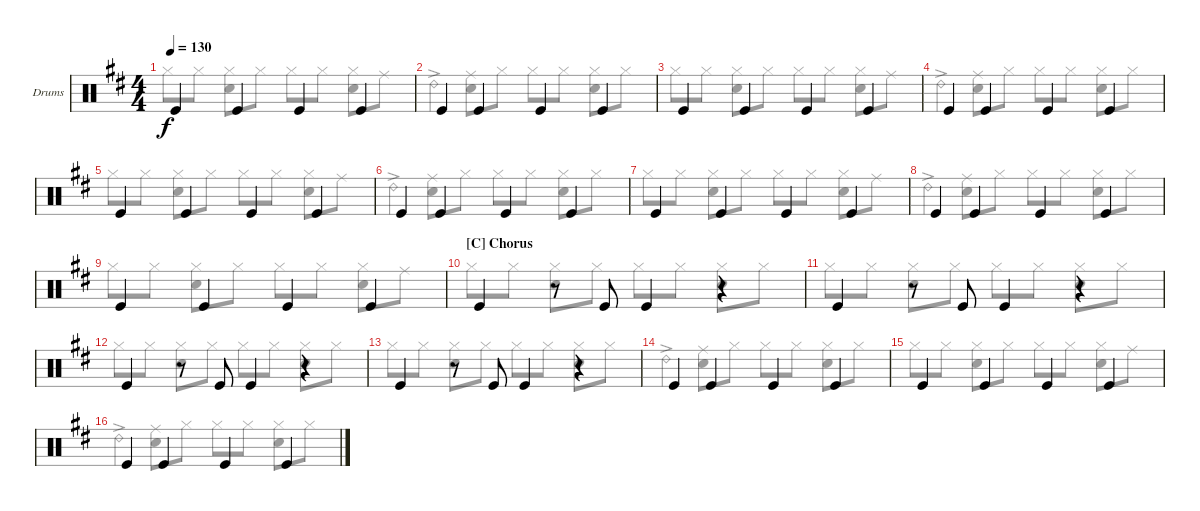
\bracketExtendMode groupsimilarinstruments
\firstSystemTrackNameOrientation horizontal
\otherSystemsTrackNameOrientation horizontal
\track ("Drumkit" "Drums") {instrument percussion}
\staff {score}
\articulation defaults
\voice
\ts (4 4)
\tempo 130
\clef neutral
\scale
1.05044
\ks d "Kick (hit)".4{dy f} "Kick (hit)".4 "Kick (hit)".4 "Kick (hit)".4
|
\scale
0.949559 "Kick (hit)".4 "Kick (hit)".4 "Kick (hit)".4 "Kick (hit)".4 |
\scale
1.05044 "Kick (hit)".4 "Kick (hit)".4 "Kick (hit)".4 "Kick (hit)".4 |
\scale
0.949559 "Kick (hit)".4 "Kick (hit)".4 "Kick (hit)".4 "Kick (hit)".4 |
\scale
1.05044 "Kick (hit)".4 "Kick (hit)".4 "Kick (hit)".4 "Kick (hit)".4 |
\scale
0.949559 "Kick (hit)".4 "Kick (hit)".4 "Kick (hit)".4 "Kick (hit)".4 |
\scale
1.05044 "Kick (hit)".4 "Kick (hit)".4 "Kick (hit)".4 "Kick (hit)".4 |
\scale
0.949559 "Kick (hit)".4 "Kick (hit)".4 "Kick (hit)".4 "Kick (hit)".4 |
\scale
1.05044 "Kick (hit)".4 "Kick (hit)".4 "Kick (hit)".4 "Kick (hit)".4 |
\section ("C" "Chorus")
\scale
0.949559 "Kick (hit)".4 r.8 "Kick (hit)".8 "Kick (hit)".4 r.4 |
\scale
1.05044 "Kick (hit)".4 r.8 "Kick (hit)".8 "Kick (hit)".4 r.4 |
\scale
0.949559 "Kick (hit)".4 r.8 "Kick (hit)".8 "Kick (hit)".4 r.4 |
\scale
1.05044 "Kick (hit)".4 r.8 "Kick (hit)".8 "Kick (hit)".4 r.4 |
\scale
0.949559 "Kick (hit)".4 "Kick (hit)".4 "Kick (hit)".4 "Kick (hit)".4 |
\scale
1.05044 "Kick (hit)".4 "Kick (hit)".4 "Kick (hit)".4 "Kick (hit)".4 |
\scale
0.949559 "Kick (hit)".4 "Kick (hit)".4 "Kick (hit)".4 "Kick (hit)".4
\voice
\clef neutral
\ottava regular
\simile none
\scale
1.05044
\ks d "Hi-Hat (closed)".8{dy f} "Hi-Hat (closed)".8
("Hi-Hat (closed)" "Snare (hit) 2").8 "Hi-Hat (closed)".8 "Hi-Hat (closed)".8 "Hi-Hat (closed)".8 ("Hi-Hat (closed)" "Snare (hit) 2").8 "Ride (middle)".8 |
\scale
0.949559 "Ride (bell) 2"{ac}.4 ("Snare (hit) 2" "Ride (middle)").8 "Hi-Hat (closed)".8 "Hi-Hat (closed)".8 "Hi-Hat (closed)".8 ("Hi-Hat (closed)" "Snare (hit) 2").8 "Hi-Hat (closed)".8 |
\scale
1.05044 "Hi-Hat (closed)".8 "Hi-Hat (closed)".8 ("Hi-Hat (closed)" "Snare (hit) 2").8 "Hi-Hat (closed)".8 "Hi-Hat (closed)".8 "Hi-Hat (closed)".8 ("Hi-Hat (closed)" "Snare (hit) 2").8 "Ride (middle)".8 |
\scale
0.949559 "Ride (bell) 2"{ac}.4 ("Snare (hit) 2" "Ride (middle)").8 "Hi-Hat (closed)".8 "Hi-Hat (closed)".8 "Hi-Hat (closed)".8 ("Hi-Hat (closed)" "Snare (hit) 2").8 "Hi-Hat (closed)".8 |
\scale
1.05044 "Hi-Hat (closed)".8 "Hi-Hat (closed)".8 ("Hi-Hat (closed)" "Snare (hit) 2").8 "Hi-Hat (closed)".8 "Hi-Hat (closed)".8 "Hi-Hat (closed)".8 ("Hi-Hat (closed)" "Snare (hit) 2").8 "Ride (middle)".8 |
\scale
0.949559 "Ride (bell) 2"{ac}.4 ("Snare (hit) 2" "Ride (middle)").8 "Hi-Hat (closed)".8 "Hi-Hat (closed)".8 "Hi-Hat (closed)".8 ("Hi-Hat (closed)" "Snare (hit) 2").8 "Hi-Hat (closed)".8 |
\scale
1.05044 "Hi-Hat (closed)".8 "Hi-Hat (closed)".8 ("Hi-Hat (closed)" "Snare (hit) 2").8 "Hi-Hat (closed)".8 "Hi-Hat (closed)".8 "Hi-Hat (closed)".8 ("Hi-Hat (closed)" "Snare (hit) 2").8 "Ride (middle)".8 |
\scale
0.949559 "Ride (bell) 2"{ac}.4 ("Snare (hit) 2" "Ride (middle)").8 "Hi-Hat (closed)".8 "Hi-Hat (closed)".8 "Hi-Hat (closed)".8 ("Hi-Hat (closed)" "Snare (hit) 2").8 "Hi-Hat (closed)".8 |
\scale
1.05044 "Hi-Hat (closed)".8 "Hi-Hat (closed)".8 ("Hi-Hat (closed)" "Snare (hit) 2").8 "Hi-Hat (closed)".8 "Hi-Hat (closed)".8 "Hi-Hat (closed)".8 ("Hi-Hat (closed)" "Snare (hit) 2").8 "Ride (middle)".8 |
\scale
0.949559 "Hi-Hat (closed)".8 "Hi-Hat (closed)".8 ("Hi-Hat (closed)" "Snare (hit) 2").8 "Hi-Hat (closed)".8 "Hi-Hat (closed)".8 "Hi-Hat (closed)".8 ("Hi-Hat (closed)" "Snare (hit) 2").8 "Hi-Hat (closed)".8 |
\scale
1.05044 "Hi-Hat (closed)".8 "Hi-Hat (closed)".8 ("Hi-Hat (closed)" "Snare (hit) 2").8 "Hi-Hat (closed)".8 "Hi-Hat (closed)".8 "Hi-Hat (closed)".8 ("Hi-Hat (closed)" "Snare (hit) 2").8 "Hi-Hat (closed)".8 |
\scale
0.949559 "Hi-Hat (closed)".8 "Hi-Hat (closed)".8 ("Hi-Hat (closed)" "Snare (hit) 2").8 "Hi-Hat (closed)".8 "Hi-Hat (closed)".8 "Hi-Hat (closed)".8 ("Hi-Hat (closed)" "Snare (hit) 2").8 "Hi-Hat (closed)".8 |
\scale
1.05044 "Hi-Hat (closed)".8 "Hi-Hat (closed)".8 ("Hi-Hat (closed)" "Snare (hit) 2").8 "Hi-Hat (closed)".8 "Hi-Hat (closed)".8 "Hi-Hat (closed)".8 ("Hi-Hat (closed)" "Snare (hit) 2").8 "Hi-Hat (closed)".8 |
\scale
0.949559 "Ride (bell) 2"{ac}.4 ("Snare (hit) 2" "Ride (middle)").8 "Hi-Hat (closed)".8 "Hi-Hat (closed)".8 "Hi-Hat (closed)".8 ("Hi-Hat (closed)" "Snare (hit) 2").8 "Hi-Hat (closed)".8 |
\scale
1.05044 "Hi-Hat (closed)".8 "Hi-Hat (closed)".8 ("Hi-Hat (closed)" "Snare (hit) 2").8 "Hi-Hat (closed)".8 "Hi-Hat (closed)".8 "Hi-Hat (closed)".8 ("Hi-Hat (closed)" "Snare (hit) 2").8 "Ride (middle)".8 |
\scale
0.949559 "Ride (bell) 2"{ac}.4 ("Snare (hit) 2" "Ride (middle)").8 "Hi-Hat (closed)".8 "Hi-Hat (closed)".8 "Hi-Hat (closed)".8 ("Hi-Hat (closed)" "Snare (hit) 2").8 "Hi-Hat (closed)".8
